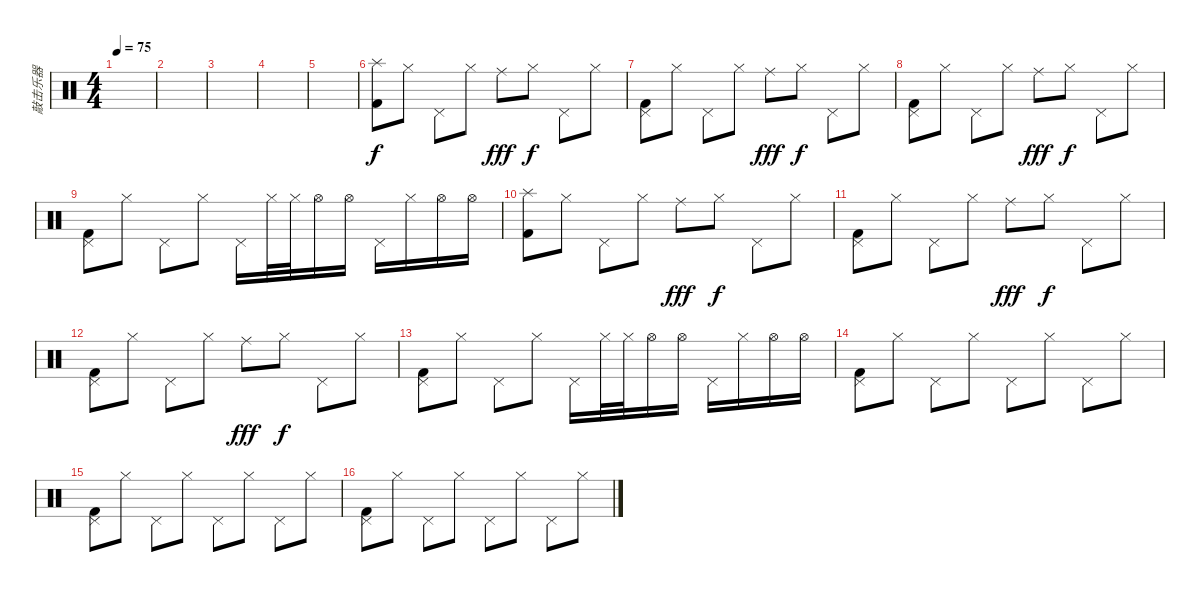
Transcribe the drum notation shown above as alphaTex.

\track ("敲击乐器" "敲击乐器") {instrument percussion}
\staff {score}
\articulation defaults
\ts (4 4)
\tempo 75
\clef neutral
\ks c
|
|
|
|
|
("Splash (hit)" "Kick (hit) 2").8 "Hi-Hat (closed)".8 "Pedal Hi-Hat (hit)".8 "Hi-Hat (closed)".8 "Ride (middle)".8{dy fff} "Hi-Hat (closed)".8{dy f} "Pedal Hi-Hat (hit)".8 "Hi-Hat (closed)".8 |
("Pedal Hi-Hat (hit)" "Kick (hit) 2").8 "Hi-Hat (closed)".8 "Pedal Hi-Hat (hit)".8 "Hi-Hat (closed)".8 "Ride (middle)".8{dy fff} "Hi-Hat (closed)".8{dy f} "Pedal Hi-Hat (hit)".8 "Hi-Hat (closed)".8 |
("Pedal Hi-Hat (hit)" "Kick (hit) 2").8 "Hi-Hat (closed)".8 "Pedal Hi-Hat (hit)".8 "Hi-Hat (closed)".8 "Ride (middle)".8{dy fff} "Hi-Hat (closed)".8{dy f} "Pedal Hi-Hat (hit)".8 "Hi-Hat (closed)".8 |
("Pedal Hi-Hat (hit)" "Kick (hit) 2").8 "Hi-Hat (closed)".8 "Pedal Hi-Hat (hit)".8 "Hi-Hat (closed)".8 "Pedal Hi-Hat (hit)".16 "Hi-Hat (closed)".32 "Hi-Hat (closed)".32 "Hi-Hat (open)".16 "Hi-Hat (open)".16 "Pedal Hi-Hat (hit)".16 "Hi-Hat (closed)".16 "Hi-Hat (open)".16 "Hi-Hat (open)".16 |
("Splash (hit)" "Kick (hit) 2").8 "Hi-Hat (closed)".8 "Pedal Hi-Hat (hit)".8 "Hi-Hat (closed)".8 "Ride (middle)".8{dy fff} "Hi-Hat (closed)".8{dy f} "Pedal Hi-Hat (hit)".8 "Hi-Hat (closed)".8 |
("Pedal Hi-Hat (hit)" "Kick (hit) 2").8 "Hi-Hat (closed)".8 "Pedal Hi-Hat (hit)".8 "Hi-Hat (closed)".8 "Ride (middle)".8{dy fff} "Hi-Hat (closed)".8{dy f} "Pedal Hi-Hat (hit)".8 "Hi-Hat (closed)".8 |
("Pedal Hi-Hat (hit)" "Kick (hit) 2").8 "Hi-Hat (closed)".8 "Pedal Hi-Hat (hit)".8 "Hi-Hat (closed)".8 "Ride (middle)".8{dy fff} "Hi-Hat (closed)".8{dy f} "Pedal Hi-Hat (hit)".8 "Hi-Hat (closed)".8 |
("Pedal Hi-Hat (hit)" "Kick (hit) 2").8 "Hi-Hat (closed)".8 "Pedal Hi-Hat (hit)".8 "Hi-Hat (closed)".8 "Pedal Hi-Hat (hit)".16 "Hi-Hat (closed)".32 "Hi-Hat (closed)".32 "Hi-Hat (open)".16 "Hi-Hat (open)".16 "Pedal Hi-Hat (hit)".16 "Hi-Hat (closed)".16 "Hi-Hat (open)".16 "Hi-Hat (open)".16 |
("Pedal Hi-Hat (hit)" "Kick (hit) 2").8 "Hi-Hat (closed)".8 "Pedal Hi-Hat (hit)".8 "Hi-Hat (closed)".8 "Pedal Hi-Hat (hit)".8 "Hi-Hat (closed)".8 "Pedal Hi-Hat (hit)".8 "Hi-Hat (closed)".8 |
("Pedal Hi-Hat (hit)" "Kick (hit) 2").8 "Hi-Hat (closed)".8 "Pedal Hi-Hat (hit)".8 "Hi-Hat (closed)".8 "Pedal Hi-Hat (hit)".8 "Hi-Hat (closed)".8 "Pedal Hi-Hat (hit)".8 "Hi-Hat (closed)".8 |
("Pedal Hi-Hat (hit)" "Kick (hit) 2").8 "Hi-Hat (closed)".8 "Pedal Hi-Hat (hit)".8 "Hi-Hat (closed)".8 "Pedal Hi-Hat (hit)".8 "Hi-Hat (closed)".8 "Pedal Hi-Hat (hit)".8 "Hi-Hat (closed)".8
